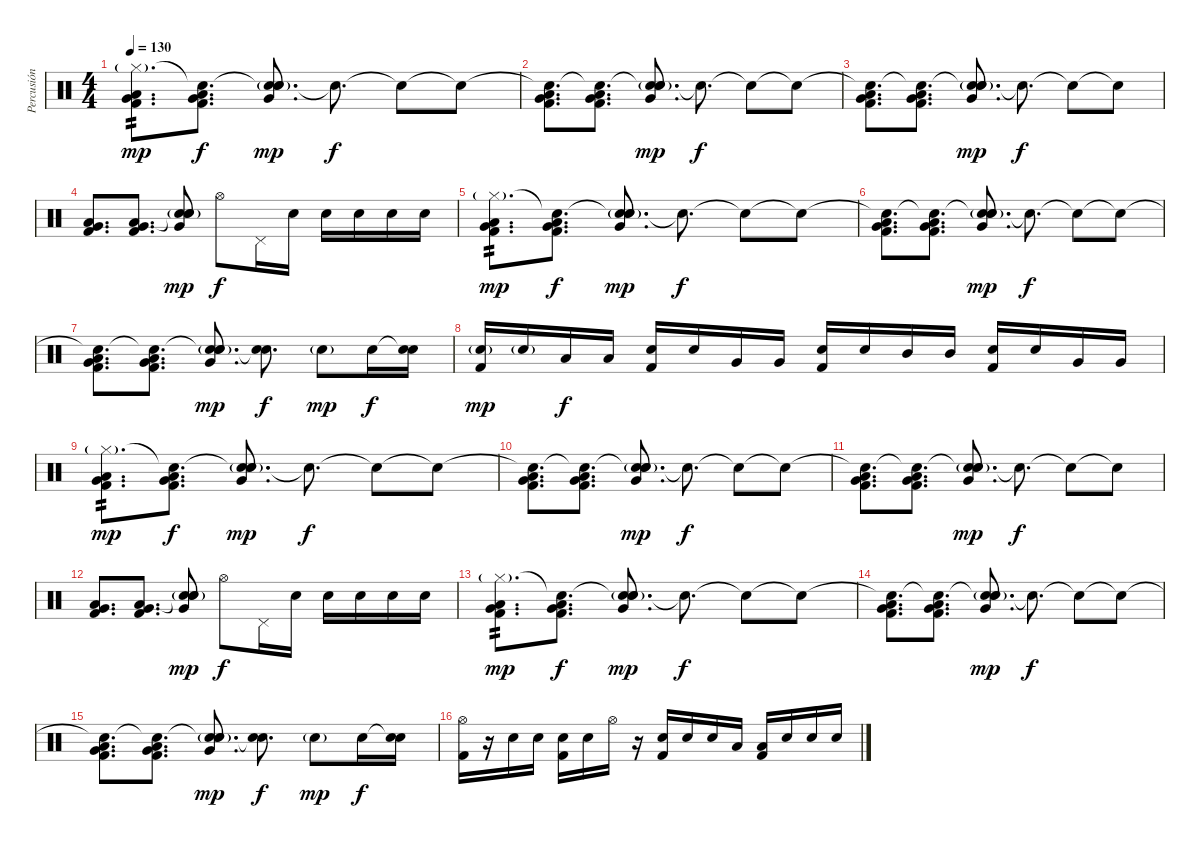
\track ("Percusión" "Percusión") {instrument percussion}
\staff {score}
\articulation defaults
\ts (4 4)
\tempo 130
\clef neutral
\ks c
("Hi-Hat (closed)"{g} "Low Floor Tom (hit)" "Very Low Tom (hit)" "Kick (hit) 2").8{d tp 2 dy mp} ("Snare (hit)"{t} "Low Floor Tom (hit)" "Very Low Tom (hit)" "Kick (hit) 2").8{d dy f} ("Snare (hit)"{t} "Hand Clap (hit)"{g} "Very Low Tom (hit)" "Electric Snare (hit)").8{d dy mp} "Snare (hit)"{t}.8{d dy f} "Snare (hit)"{t}.8 "Snare (hit)"{t}.8 |
("Snare (hit)"{t} "Low Floor Tom (hit)" "Very Low Tom (hit)" "Kick (hit) 2").8{d} ("Snare (hit)"{t} "Low Floor Tom (hit)" "Very Low Tom (hit)" "Kick (hit) 2").8{d} ("Snare (hit)"{t} "Hand Clap (hit)"{g} "Very Low Tom (hit)" "Electric Snare (hit)").8{d dy mp} "Snare (hit)"{t}.8{d dy f} "Snare (hit)"{t}.8 "Snare (hit)"{t}.8 |
("Snare (hit)"{t} "Low Floor Tom (hit)" "Very Low Tom (hit)" "Kick (hit) 2").8{d} ("Snare (hit)"{t} "Low Floor Tom (hit)" "Very Low Tom (hit)" "Kick (hit) 2").8{d} ("Snare (hit)"{t} "Hand Clap (hit)"{g} "Very Low Tom (hit)" "Electric Snare (hit)").8{d dy mp} "Snare (hit)"{t}.8{d dy f} "Snare (hit)"{t}.8 "Snare (hit)"{t}.8 |
("Low Floor Tom (hit)" "Very Low Tom (hit)" "Kick (hit) 2").8{d} ("Low Floor Tom (hit)" "Very Low Tom (hit)" "Kick (hit) 2").8{d} ("Snare (hit)"{t} "Hand Clap (hit)"{g} "Very Low Tom (hit)" "Electric Snare (hit)").8{dy mp} "Hi-Hat (open)".8{dy f} "Pedal Hi-Hat (hit)".16 "Electric Snare (hit)".16 "Electric Snare (hit)".16 "Electric Snare (hit)".16 "Electric Snare (hit)".16 "Electric Snare (hit)".16 |
("Hi-Hat (closed)"{g} "Low Floor Tom (hit)" "Very Low Tom (hit)" "Kick (hit) 2").8{d tp 2 dy mp} ("Snare (hit)"{t} "Low Floor Tom (hit)" "Very Low Tom (hit)" "Kick (hit) 2").8{d dy f} ("Snare (hit)"{t} "Hand Clap (hit)"{g} "Very Low Tom (hit)" "Electric Snare (hit)").8{d dy mp} "Snare (hit)"{t}.8{d dy f} "Snare (hit)"{t}.8 "Snare (hit)"{t}.8 |
("Snare (hit)"{t} "Low Floor Tom (hit)" "Very Low Tom (hit)" "Kick (hit) 2").8{d} ("Snare (hit)"{t} "Low Floor Tom (hit)" "Very Low Tom (hit)" "Kick (hit) 2").8{d} ("Snare (hit)"{t} "Hand Clap (hit)"{g} "Very Low Tom (hit)" "Electric Snare (hit)").8{d dy mp} "Snare (hit)"{t}.8{d dy f} "Snare (hit)"{t}.8 "Snare (hit)"{t}.8 |
("Snare (hit)"{t} "Low Floor Tom (hit)" "Very Low Tom (hit)" "Kick (hit) 2").8{d} ("Snare (hit)"{t} "Low Floor Tom (hit)" "Very Low Tom (hit)" "Kick (hit) 2").8{d} ("Snare (hit)"{t} "Hand Clap (hit)"{g} "Very Low Tom (hit)" "Electric Snare (hit)").8{d dy mp} ("Snare (hit)"{t} "Electric Snare (hit)").8{d dy f} "Electric Snare (hit)"{g}.8{dy mp} "Electric Snare (hit)".16{dy f} ("Snare (hit)"{t} "Electric Snare (hit)").16 |
("Electric Snare (hit)"{g} "Kick (hit) 2").16{dy mp} "Electric Snare (hit)"{g}.16 "Low Tom (hit)".16{dy f} "Low Tom (hit)".16 ("Electric Snare (hit)" "Kick (hit) 2").16 "Electric Snare (hit)".16 "Very Low Tom (hit)".16 "Very Low Tom (hit)".16 ("Electric Snare (hit)" "Kick (hit) 2").16 "Electric Snare (hit)".16 "Mid Tom (hit)".16 "Mid Tom (hit)".16 ("Electric Snare (hit)" "Kick (hit) 2").16 "Electric Snare (hit)".16 "Very Low Tom (hit)".16 "Very Low Tom (hit)".16 |
("Hi-Hat (closed)"{g} "Low Floor Tom (hit)" "Very Low Tom (hit)" "Kick (hit) 2").8{d tp 2 dy mp} ("Snare (hit)"{t} "Low Floor Tom (hit)" "Very Low Tom (hit)" "Kick (hit) 2").8{d dy f} ("Snare (hit)"{t} "Hand Clap (hit)"{g} "Very Low Tom (hit)" "Electric Snare (hit)").8{d dy mp} "Snare (hit)"{t}.8{d dy f} "Snare (hit)"{t}.8 "Snare (hit)"{t}.8 |
("Snare (hit)"{t} "Low Floor Tom (hit)" "Very Low Tom (hit)" "Kick (hit) 2").8{d} ("Snare (hit)"{t} "Low Floor Tom (hit)" "Very Low Tom (hit)" "Kick (hit) 2").8{d} ("Snare (hit)"{t} "Hand Clap (hit)"{g} "Very Low Tom (hit)" "Electric Snare (hit)").8{d dy mp} "Snare (hit)"{t}.8{d dy f} "Snare (hit)"{t}.8 "Snare (hit)"{t}.8 |
("Snare (hit)"{t} "Low Floor Tom (hit)" "Very Low Tom (hit)" "Kick (hit) 2").8{d} ("Snare (hit)"{t} "Low Floor Tom (hit)" "Very Low Tom (hit)" "Kick (hit) 2").8{d} ("Snare (hit)"{t} "Hand Clap (hit)"{g} "Very Low Tom (hit)" "Electric Snare (hit)").8{d dy mp} "Snare (hit)"{t}.8{d dy f} "Snare (hit)"{t}.8 "Snare (hit)"{t}.8 |
("Low Floor Tom (hit)" "Very Low Tom (hit)" "Kick (hit) 2").8{d} ("Low Floor Tom (hit)" "Very Low Tom (hit)" "Kick (hit) 2").8{d} ("Snare (hit)"{t} "Hand Clap (hit)"{g} "Very Low Tom (hit)" "Electric Snare (hit)").8{dy mp} "Hi-Hat (open)".8{dy f} "Pedal Hi-Hat (hit)".16 "Electric Snare (hit)".16 "Electric Snare (hit)".16 "Electric Snare (hit)".16 "Electric Snare (hit)".16 "Electric Snare (hit)".16 |
("Hi-Hat (closed)"{g} "Low Floor Tom (hit)" "Very Low Tom (hit)" "Kick (hit) 2").8{d tp 2 dy mp} ("Snare (hit)"{t} "Low Floor Tom (hit)" "Very Low Tom (hit)" "Kick (hit) 2").8{d dy f} ("Snare (hit)"{t} "Hand Clap (hit)"{g} "Very Low Tom (hit)" "Electric Snare (hit)").8{d dy mp} "Snare (hit)"{t}.8{d dy f} "Snare (hit)"{t}.8 "Snare (hit)"{t}.8 |
("Snare (hit)"{t} "Low Floor Tom (hit)" "Very Low Tom (hit)" "Kick (hit) 2").8{d} ("Snare (hit)"{t} "Low Floor Tom (hit)" "Very Low Tom (hit)" "Kick (hit) 2").8{d} ("Snare (hit)"{t} "Hand Clap (hit)"{g} "Very Low Tom (hit)" "Electric Snare (hit)").8{d dy mp} "Snare (hit)"{t}.8{d dy f} "Snare (hit)"{t}.8 "Snare (hit)"{t}.8 |
("Snare (hit)"{t} "Low Floor Tom (hit)" "Very Low Tom (hit)" "Kick (hit) 2").8{d} ("Snare (hit)"{t} "Low Floor Tom (hit)" "Very Low Tom (hit)" "Kick (hit) 2").8{d} ("Snare (hit)"{t} "Hand Clap (hit)"{g} "Very Low Tom (hit)" "Electric Snare (hit)").8{d dy mp} ("Snare (hit)"{t} "Electric Snare (hit)").8{d dy f} "Electric Snare (hit)"{g}.8{dy mp} "Electric Snare (hit)".16{dy f} ("Snare (hit)"{t} "Electric Snare (hit)").16 |
("Hi-Hat (open)" "Kick (hit) 2").16 r.16 "Electric Snare (hit)".16 "Electric Snare (hit)".16 ("Electric Snare (hit)" "Kick (hit) 2").16 "Electric Snare (hit)".16 "Hi-Hat (open)".16 r.16 ("Electric Snare (hit)" "Kick (hit) 2").16 "Electric Snare (hit)".16 "Electric Snare (hit)".16 "Low Tom (hit)".16 ("Low Tom (hit)" "Kick (hit) 2").16 "Electric Snare (hit)".16 "Electric Snare (hit)".16 "Electric Snare (hit)".16
